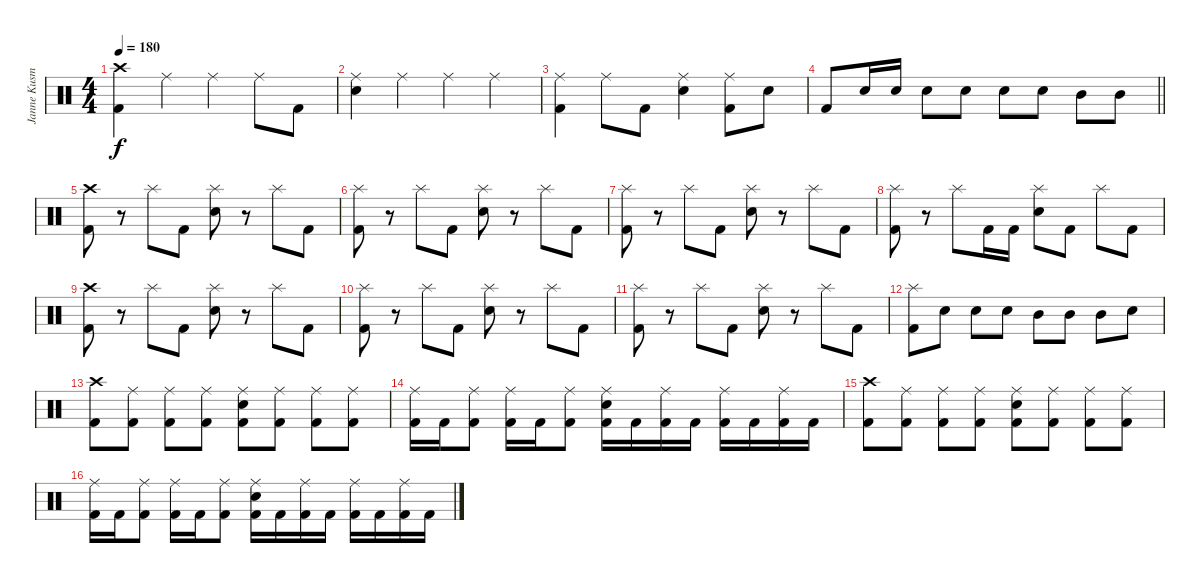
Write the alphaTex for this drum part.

\track ("Janne Kusmin - Drums" "Janne Kusm") {instrument percussion}
\staff {score}
\articulation defaults
\ts (4 4)
\tempo 180
\clef neutral
\ks c
("Crash high (hit)" "Kick (hit) 2").4{dy f} "Ride (middle)".4 "Ride (middle)".4 "Ride (middle)".8 "Kick (hit) 2".8 |
("Ride (middle)" "Electric Snare (hit)").4 "Ride (middle)".4 "Ride (middle)".4 "Ride (middle)".4 |
("Ride (middle)" "Kick (hit) 2").4 "Ride (middle)".8 "Kick (hit) 2".8 ("Ride (middle)" "Electric Snare (hit)").4 ("Ride (middle)" "Kick (hit) 2").8 "Electric Snare (hit)".8 |
\barLineRight lightlight "Kick (hit) 2".8 "Electric Snare (hit)".16 "Electric Snare (hit)".16 "Electric Snare (hit)".8 "Electric Snare (hit)".8 "Electric Snare (hit)".8 "Electric Snare (hit)".8 "Mid Tom (hit)".8 "Mid Tom (hit)".8
|
\section ("" "")
("Crash high (hit)" "Kick (hit) 2").8 r.8 "Splash (hit)".8 "Kick (hit) 2".8 ("Splash (hit)" "Electric Snare (hit)").8 r.8 "Splash (hit)".8 "Kick (hit) 2".8 |
("Splash (hit)" "Kick (hit) 2").8 r.8 "Splash (hit)".8 "Kick (hit) 2".8 ("Splash (hit)" "Electric Snare (hit)").8 r.8 "Splash (hit)".8 "Kick (hit) 2".8 |
("Splash (hit)" "Kick (hit) 2").8 r.8 "Splash (hit)".8 "Kick (hit) 2".8 ("Splash (hit)" "Electric Snare (hit)").8 r.8 "Splash (hit)".8 "Kick (hit) 2".8 |
("Splash (hit)" "Kick (hit) 2").8 r.8 "Splash (hit)".8 "Kick (hit) 2".16 "Kick (hit) 2".16 ("Splash (hit)" "Electric Snare (hit)").8 "Kick (hit) 2".8 "Splash (hit)".8 "Kick (hit) 2".8 |
("Crash high (hit)" "Kick (hit) 2").8 r.8 "Splash (hit)".8 "Kick (hit) 2".8 ("Splash (hit)" "Electric Snare (hit)").8 r.8 "Splash (hit)".8 "Kick (hit) 2".8 |
("Splash (hit)" "Kick (hit) 2").8 r.8 "Splash (hit)".8 "Kick (hit) 2".8 ("Splash (hit)" "Electric Snare (hit)").8 r.8 "Splash (hit)".8 "Kick (hit) 2".8 |
("Splash (hit)" "Kick (hit) 2").8 r.8 "Splash (hit)".8 "Kick (hit) 2".8 ("Splash (hit)" "Electric Snare (hit)").8 r.8 "Splash (hit)".8 "Kick (hit) 2".8 |
("Splash (hit)" "Kick (hit) 2").8 "Electric Snare (hit)".8 "Electric Snare (hit)".8 "Electric Snare (hit)".8 "Mid Tom (hit)".8 "Mid Tom (hit)".8 "Mid Tom (hit)".8 "Electric Snare (hit)".8 |
("Crash high (hit)" "Kick (hit) 2").8 ("Ride (middle)" "Kick (hit) 2").8 ("Ride (middle)" "Kick (hit) 2").8 ("Ride (middle)" "Kick (hit) 2").8 ("Ride (middle)" "Electric Snare (hit)" "Kick (hit) 2").8 ("Ride (middle)" "Kick (hit) 2").8 ("Ride (middle)" "Kick (hit) 2").8 ("Ride (middle)" "Kick (hit) 2").8 |
("Ride (middle)" "Kick (hit) 2").16 "Kick (hit) 2".16 ("Ride (middle)" "Kick (hit) 2").8 ("Ride (middle)" "Kick (hit) 2").16 "Kick (hit) 2".16 ("Ride (middle)" "Kick (hit) 2").8 ("Ride (middle)" "Electric Snare (hit)" "Kick (hit) 2").16 "Kick (hit) 2".16 ("Ride (middle)" "Kick (hit) 2").16 "Kick (hit) 2".16 ("Ride (middle)" "Kick (hit) 2").16 "Kick (hit) 2".16 ("Ride (middle)" "Kick (hit) 2").16 "Kick (hit) 2".16 |
("Crash high (hit)" "Kick (hit) 2").8 ("Ride (middle)" "Kick (hit) 2").8 ("Ride (middle)" "Kick (hit) 2").8 ("Ride (middle)" "Kick (hit) 2").8 ("Ride (middle)" "Electric Snare (hit)" "Kick (hit) 2").8 ("Ride (middle)" "Kick (hit) 2").8 ("Ride (middle)" "Kick (hit) 2").8 ("Ride (middle)" "Kick (hit) 2").8 |
("Ride (middle)" "Kick (hit) 2").16 "Kick (hit) 2".16 ("Ride (middle)" "Kick (hit) 2").8 ("Ride (middle)" "Kick (hit) 2").16 "Kick (hit) 2".16 ("Ride (middle)" "Kick (hit) 2").8 ("Ride (middle)" "Electric Snare (hit)" "Kick (hit) 2").16 "Kick (hit) 2".16 ("Ride (middle)" "Kick (hit) 2").16 "Kick (hit) 2".16 ("Ride (middle)" "Kick (hit) 2").16 "Kick (hit) 2".16 ("Ride (middle)" "Kick (hit) 2").16 "Kick (hit) 2".16
